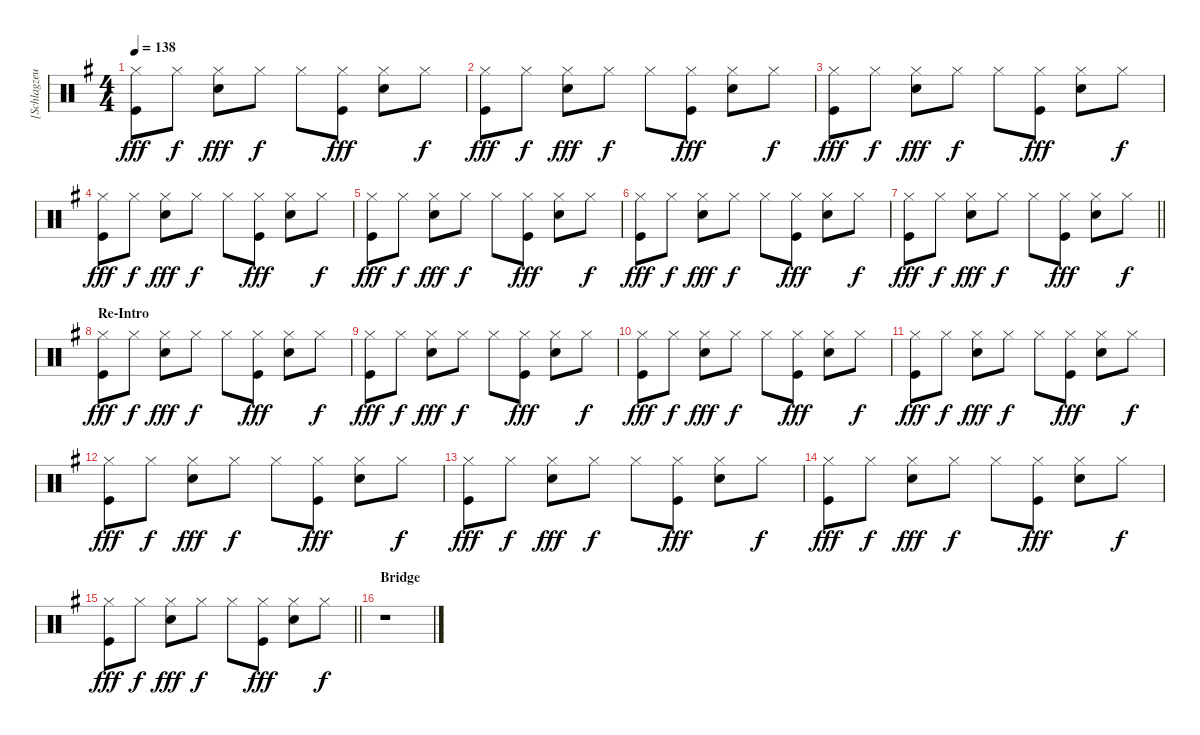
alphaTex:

\track ("[Schlagzeug]" "[Schlagzeu") {instrument percussion}
\staff {score}
\articulation defaults
\ts (4 4)
\tempo 138
\clef neutral
\ks eminor
("Hi-Hat (closed)" "Kick (hit)").8{dy fff} "Hi-Hat (closed)".8{dy f} ("Hi-Hat (closed)" "Electric Snare (hit)").8{dy fff} "Hi-Hat (closed)".8{dy f} "Hi-Hat (closed)".8 ("Hi-Hat (closed)" "Kick (hit)").8{dy fff} ("Hi-Hat (closed)" "Electric Snare (hit)").8 "Hi-Hat (closed)".8{dy f} |
("Hi-Hat (closed)" "Kick (hit)").8{dy fff} "Hi-Hat (closed)".8{dy f} ("Hi-Hat (closed)" "Electric Snare (hit)").8{dy fff} "Hi-Hat (closed)".8{dy f} "Hi-Hat (closed)".8 ("Hi-Hat (closed)" "Kick (hit)").8{dy fff} ("Hi-Hat (closed)" "Electric Snare (hit)").8 "Hi-Hat (closed)".8{dy f} |
("Hi-Hat (closed)" "Kick (hit)").8{dy fff} "Hi-Hat (closed)".8{dy f} ("Hi-Hat (closed)" "Electric Snare (hit)").8{dy fff} "Hi-Hat (closed)".8{dy f} "Hi-Hat (closed)".8 ("Hi-Hat (closed)" "Kick (hit)").8{dy fff} ("Hi-Hat (closed)" "Electric Snare (hit)").8 "Hi-Hat (closed)".8{dy f} |
("Hi-Hat (closed)" "Kick (hit)").8{dy fff} "Hi-Hat (closed)".8{dy f} ("Hi-Hat (closed)" "Electric Snare (hit)").8{dy fff} "Hi-Hat (closed)".8{dy f} "Hi-Hat (closed)".8 ("Hi-Hat (closed)" "Kick (hit)").8{dy fff} ("Hi-Hat (closed)" "Electric Snare (hit)").8 "Hi-Hat (closed)".8{dy f} |
("Hi-Hat (closed)" "Kick (hit)").8{dy fff} "Hi-Hat (closed)".8{dy f} ("Hi-Hat (closed)" "Electric Snare (hit)").8{dy fff} "Hi-Hat (closed)".8{dy f} "Hi-Hat (closed)".8 ("Hi-Hat (closed)" "Kick (hit)").8{dy fff} ("Hi-Hat (closed)" "Electric Snare (hit)").8 "Hi-Hat (closed)".8{dy f} |
("Hi-Hat (closed)" "Kick (hit)").8{dy fff} "Hi-Hat (closed)".8{dy f} ("Hi-Hat (closed)" "Electric Snare (hit)").8{dy fff} "Hi-Hat (closed)".8{dy f} "Hi-Hat (closed)".8 ("Hi-Hat (closed)" "Kick (hit)").8{dy fff} ("Hi-Hat (closed)" "Electric Snare (hit)").8 "Hi-Hat (closed)".8{dy f} |
\barLineRight lightlight
("Hi-Hat (closed)" "Kick (hit)").8{dy fff} "Hi-Hat (closed)".8{dy f} ("Hi-Hat (closed)" "Electric Snare (hit)").8{dy fff} "Hi-Hat (closed)".8{dy f} "Hi-Hat (closed)".8 ("Hi-Hat (closed)" "Kick (hit)").8{dy fff} ("Hi-Hat (closed)" "Electric Snare (hit)").8 "Hi-Hat (closed)".8{dy f} |
\section ("" "Re-Intro")
("Hi-Hat (closed)" "Kick (hit)").8{dy fff} "Hi-Hat (closed)".8{dy f} ("Hi-Hat (closed)" "Electric Snare (hit)").8{dy fff} "Hi-Hat (closed)".8{dy f} "Hi-Hat (closed)".8 ("Hi-Hat (closed)" "Kick (hit)").8{dy fff} ("Hi-Hat (closed)" "Electric Snare (hit)").8 "Hi-Hat (closed)".8{dy f} |
("Hi-Hat (closed)" "Kick (hit)").8{dy fff} "Hi-Hat (closed)".8{dy f} ("Hi-Hat (closed)" "Electric Snare (hit)").8{dy fff} "Hi-Hat (closed)".8{dy f} "Hi-Hat (closed)".8 ("Hi-Hat (closed)" "Kick (hit)").8{dy fff} ("Hi-Hat (closed)" "Electric Snare (hit)").8 "Hi-Hat (closed)".8{dy f} |
("Hi-Hat (closed)" "Kick (hit)").8{dy fff} "Hi-Hat (closed)".8{dy f} ("Hi-Hat (closed)" "Electric Snare (hit)").8{dy fff} "Hi-Hat (closed)".8{dy f} "Hi-Hat (closed)".8 ("Hi-Hat (closed)" "Kick (hit)").8{dy fff} ("Hi-Hat (closed)" "Electric Snare (hit)").8 "Hi-Hat (closed)".8{dy f} |
("Hi-Hat (closed)" "Kick (hit)").8{dy fff} "Hi-Hat (closed)".8{dy f} ("Hi-Hat (closed)" "Electric Snare (hit)").8{dy fff} "Hi-Hat (closed)".8{dy f} "Hi-Hat (closed)".8 ("Hi-Hat (closed)" "Kick (hit)").8{dy fff} ("Hi-Hat (closed)" "Electric Snare (hit)").8 "Hi-Hat (closed)".8{dy f} |
("Hi-Hat (closed)" "Kick (hit)").8{dy fff} "Hi-Hat (closed)".8{dy f} ("Hi-Hat (closed)" "Electric Snare (hit)").8{dy fff} "Hi-Hat (closed)".8{dy f} "Hi-Hat (closed)".8 ("Hi-Hat (closed)" "Kick (hit)").8{dy fff} ("Hi-Hat (closed)" "Electric Snare (hit)").8 "Hi-Hat (closed)".8{dy f} |
("Hi-Hat (closed)" "Kick (hit)").8{dy fff} "Hi-Hat (closed)".8{dy f} ("Hi-Hat (closed)" "Electric Snare (hit)").8{dy fff} "Hi-Hat (closed)".8{dy f} "Hi-Hat (closed)".8 ("Hi-Hat (closed)" "Kick (hit)").8{dy fff} ("Hi-Hat (closed)" "Electric Snare (hit)").8 "Hi-Hat (closed)".8{dy f} |
("Hi-Hat (closed)" "Kick (hit)").8{dy fff} "Hi-Hat (closed)".8{dy f} ("Hi-Hat (closed)" "Electric Snare (hit)").8{dy fff} "Hi-Hat (closed)".8{dy f} "Hi-Hat (closed)".8 ("Hi-Hat (closed)" "Kick (hit)").8{dy fff} ("Hi-Hat (closed)" "Electric Snare (hit)").8 "Hi-Hat (closed)".8{dy f} |
\barLineRight lightlight
("Hi-Hat (closed)" "Kick (hit)").8{dy fff} "Hi-Hat (closed)".8{dy f} ("Hi-Hat (closed)" "Electric Snare (hit)").8{dy fff} "Hi-Hat (closed)".8{dy f} "Hi-Hat (closed)".8 ("Hi-Hat (closed)" "Kick (hit)").8{dy fff} ("Hi-Hat (closed)" "Electric Snare (hit)").8 "Hi-Hat (closed)".8{dy f} |
\section ("" "Bridge")
r.1
